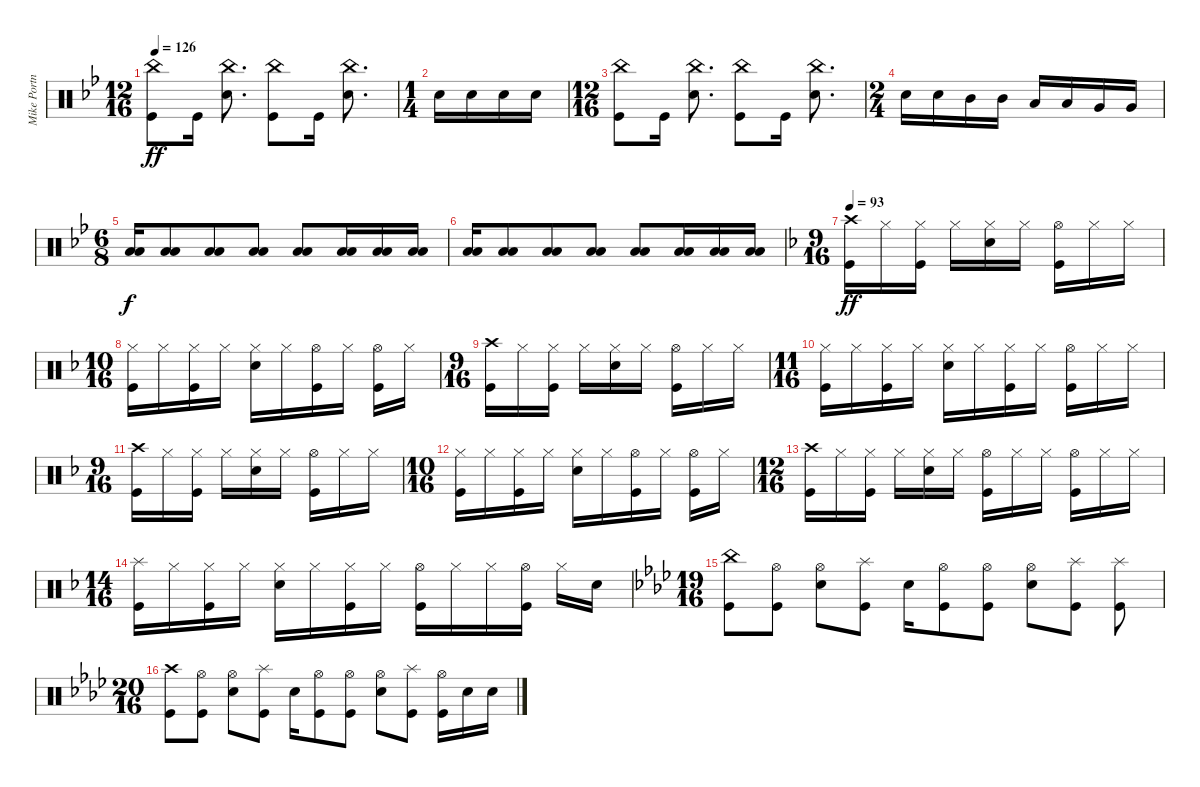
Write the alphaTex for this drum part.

\track ("Mike Portnoy - Drums" "Mike Portn") {instrument percussion}
\staff {score}
\articulation defaults
\ts (12 16)
\tempo 126
\clef neutral
\ks gminor
("China (hit)" "Kick (hit)").8{dy ff} "Kick (hit)".16 ("China (hit)" "Snare (hit) 2").8{d} ("China (hit)" "Kick (hit)").8 "Kick (hit)".16 ("China (hit)" "Snare (hit) 2").8{d} |
\ts (1 4)
"Snare (hit) 2".16 "Snare (hit) 2".16 "Snare (hit) 2".16 "Snare (hit) 2".16 |
\ts (12 16)
("China (hit)" "Kick (hit)").8 "Kick (hit)".16 ("China (hit)" "Snare (hit) 2").8{d} ("China (hit)" "Kick (hit)").8 "Kick (hit)".16 ("China (hit)" "Snare (hit) 2").8{d} |
\ts (2 4)
"Snare (hit) 2".16 "Snare (hit) 2".16 "Mid Tom (hit)".16 "Mid Tom (hit)".16 "Low Tom (hit)".16 "Low Tom (hit)".16 "Very Low Tom (hit)".16 "Very Low Tom (hit)".16 |
\ts (6 8)
("Low Floor Tom (hit)" "Low Floor Tom (hit)").16{dy f} ("Low Floor Tom (hit)" "Low Floor Tom (hit)").8 ("Low Floor Tom (hit)" "Low Floor Tom (hit)").8 ("Low Floor Tom (hit)" "Low Floor Tom (hit)").8 ("Low Floor Tom (hit)" "Low Floor Tom (hit)").8 ("Low Floor Tom (hit)" "Low Floor Tom (hit)").16 ("Low Floor Tom (hit)" "Low Floor Tom (hit)").16 ("Low Floor Tom (hit)" "Low Floor Tom (hit)").16 |
("Low Floor Tom (hit)" "Low Floor Tom (hit)").16 ("Low Floor Tom (hit)" "Low Floor Tom (hit)").8 ("Low Floor Tom (hit)" "Low Floor Tom (hit)").8 ("Low Floor Tom (hit)" "Low Floor Tom (hit)").8 ("Low Floor Tom (hit)" "Low Floor Tom (hit)").8 ("Low Floor Tom (hit)" "Low Floor Tom (hit)").16 ("Low Floor Tom (hit)" "Low Floor Tom (hit)").16 ("Low Floor Tom (hit)" "Low Floor Tom (hit)").16 |
\ts (9 16)
\tempo 93
\ks dminor
("Crash high (hit)" "Kick (hit)").16{dy ff} "Hi-Hat (closed)".16 ("Hi-Hat (closed)" "Kick (hit)").16 "Hi-Hat (closed)".16 ("Hi-Hat (closed)" "Snare (hit) 2").16 "Hi-Hat (closed)".16 ("Hi-Hat (open)" "Kick (hit)").16 "Hi-Hat (closed)".16 "Hi-Hat (closed)".16 |
\ts (10 16)
("Hi-Hat (closed)" "Kick (hit)").16 "Hi-Hat (closed)".16 ("Hi-Hat (closed)" "Kick (hit)").16 "Hi-Hat (closed)".16 ("Hi-Hat (closed)" "Snare (hit) 2").16 "Hi-Hat (closed)".16 ("Hi-Hat (open)" "Kick (hit)").16 "Hi-Hat (closed)".16 ("Hi-Hat (open)" "Kick (hit)").16 "Hi-Hat (closed)".16 |
\ts (9 16)
("Crash high (hit)" "Kick (hit)").16 "Hi-Hat (closed)".16 ("Hi-Hat (closed)" "Kick (hit)").16 "Hi-Hat (closed)".16 ("Hi-Hat (closed)" "Snare (hit) 2").16 "Hi-Hat (closed)".16 ("Hi-Hat (open)" "Kick (hit)").16 "Hi-Hat (closed)".16 "Hi-Hat (closed)".16 |
\ts (11 16)
("Hi-Hat (closed)" "Kick (hit)").16 "Hi-Hat (closed)".16 ("Hi-Hat (closed)" "Kick (hit)").16 "Hi-Hat (closed)".16 ("Hi-Hat (closed)" "Snare (hit) 2").16 "Hi-Hat (closed)".16 ("Hi-Hat (closed)" "Kick (hit)").16 "Hi-Hat (closed)".16 ("Hi-Hat (open)" "Kick (hit)").16 "Hi-Hat (closed)".16 "Hi-Hat (closed)".16 |
\ts (9 16)
("Crash high (hit)" "Kick (hit)").16 "Hi-Hat (closed)".16 ("Hi-Hat (closed)" "Kick (hit)").16 "Hi-Hat (closed)".16 ("Hi-Hat (closed)" "Snare (hit) 2").16 "Hi-Hat (closed)".16 ("Hi-Hat (open)" "Kick (hit)").16 "Hi-Hat (closed)".16 "Hi-Hat (closed)".16 |
\ts (10 16)
("Hi-Hat (closed)" "Kick (hit)").16 "Hi-Hat (closed)".16 ("Hi-Hat (closed)" "Kick (hit)").16 "Hi-Hat (closed)".16 ("Hi-Hat (closed)" "Snare (hit) 2").16 "Hi-Hat (closed)".16 ("Hi-Hat (open)" "Kick (hit)").16 "Hi-Hat (closed)".16 ("Hi-Hat (open)" "Kick (hit)").16 "Hi-Hat (closed)".16 |
\ts (12 16)
("Crash high (hit)" "Kick (hit)").16 "Hi-Hat (closed)".16 ("Hi-Hat (closed)" "Kick (hit)").16 "Hi-Hat (closed)".16 ("Hi-Hat (closed)" "Snare (hit) 2").16 "Hi-Hat (closed)".16 ("Hi-Hat (open)" "Kick (hit)").16 "Hi-Hat (closed)".16 "Hi-Hat (closed)".16 ("Hi-Hat (open)" "Kick (hit)").16 "Hi-Hat (closed)".16 "Hi-Hat (closed)".16 |
\ts (14 16)
("Splash (hit)" "Kick (hit)").16 "Hi-Hat (closed)".16 ("Hi-Hat (closed)" "Kick (hit)").16 "Hi-Hat (closed)".16 ("Hi-Hat (closed)" "Snare (hit) 2").16 "Hi-Hat (closed)".16 ("Hi-Hat (closed)" "Kick (hit)").16 "Hi-Hat (closed)".16 ("Hi-Hat (open)" "Kick (hit)").16 "Hi-Hat (closed)".16 "Hi-Hat (closed)".16 ("Hi-Hat (open)" "Kick (hit)").16 "Hi-Hat (closed)".16 "Snare (hit) 2".16 |
\ts (19 16)
\ks fminor
("China (hit)" "Kick (hit)").8 ("Hi-Hat (open)" "Kick (hit)").8 ("Hi-Hat (open)" "Snare (hit) 2").8 ("Splash (hit)" "Kick (hit)").8 "Snare (hit) 2".16 ("Hi-Hat (open)" "Kick (hit)").8 ("Hi-Hat (open)" "Kick (hit)").8 ("Hi-Hat (open)" "Snare (hit) 2").8 ("Splash (hit)" "Kick (hit)").8 ("Splash (hit)" "Kick (hit)").8 |
\ts (20 16)
("Crash high (hit)" "Kick (hit)").8 ("Hi-Hat (open)" "Kick (hit)").8 ("Hi-Hat (open)" "Snare (hit) 2").8 ("Splash (hit)" "Kick (hit)").8 "Snare (hit) 2".16 ("Hi-Hat (open)" "Kick (hit)").8 ("Hi-Hat (open)" "Kick (hit)").8 ("Hi-Hat (open)" "Snare (hit) 2").8 ("Splash (hit)" "Kick (hit)").8 ("Hi-Hat (open)" "Kick (hit)").16 "Snare (hit) 2".16 "Snare (hit) 2".16
